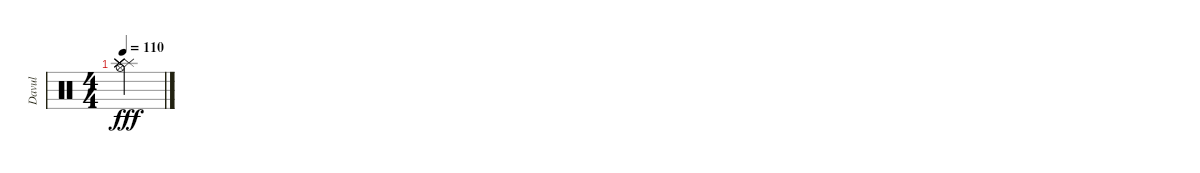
\track ("Davul" "Davul") {instrument percussion}
\staff {score}
\articulation defaults
\ts (4 4)
\tempo 110
\clef neutral
\ks c
("Splash (hit)" "Splash (hit)" "Hi-Hat (open)" "Splash (hit)" "Splash (hit)" "Splash (hit)").4{dy fff}
